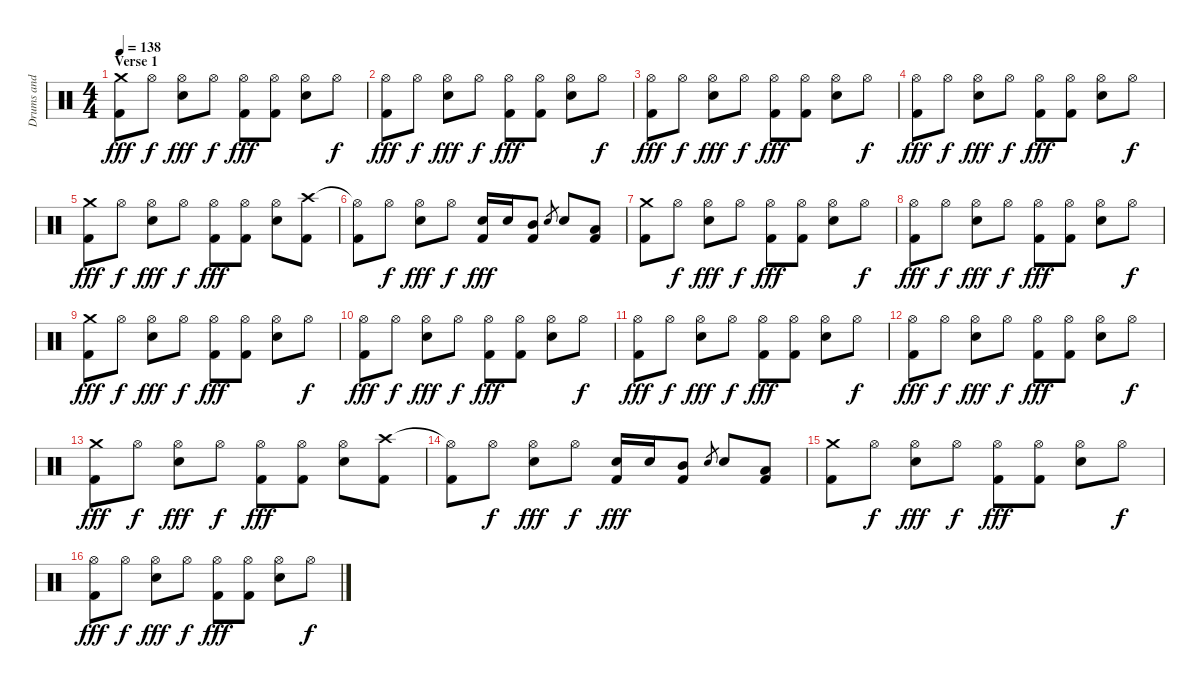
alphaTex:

\track ("Drums and Percussion" "Drums and ") {instrument percussion}
\staff {score}
\articulation defaults
\ts (4 4)
\section ("" "Verse 1")
\tempo 138
\clef neutral
\ks c
("Crash medium (hit)" "Kick (hit) 2").8{dy fff} "Hi-Hat (open)".8{dy f} ("Hi-Hat (open)" "Snare (hit) 2").8{dy fff} "Hi-Hat (open)".8{dy f} ("Hi-Hat (open)" "Kick (hit) 2").8{dy fff} ("Hi-Hat (open)" "Kick (hit) 2").8 ("Hi-Hat (open)" "Snare (hit) 2").8 "Hi-Hat (open)".8{dy f} |
("Hi-Hat (open)" "Kick (hit) 2").8{dy fff} "Hi-Hat (open)".8{dy f} ("Hi-Hat (open)" "Snare (hit) 2").8{dy fff} "Hi-Hat (open)".8{dy f} ("Hi-Hat (open)" "Kick (hit) 2").8{dy fff} ("Hi-Hat (open)" "Kick (hit) 2").8 ("Hi-Hat (open)" "Snare (hit) 2").8 "Hi-Hat (open)".8{dy f} |
("Hi-Hat (open)" "Kick (hit) 2").8{dy fff} "Hi-Hat (open)".8{dy f} ("Hi-Hat (open)" "Snare (hit) 2").8{dy fff} "Hi-Hat (open)".8{dy f} ("Hi-Hat (open)" "Kick (hit) 2").8{dy fff} ("Hi-Hat (open)" "Kick (hit) 2").8 ("Hi-Hat (open)" "Snare (hit) 2").8 "Hi-Hat (open)".8{dy f} |
("Hi-Hat (open)" "Kick (hit) 2").8{dy fff} "Hi-Hat (open)".8{dy f} ("Hi-Hat (open)" "Snare (hit) 2").8{dy fff} "Hi-Hat (open)".8{dy f} ("Hi-Hat (open)" "Kick (hit) 2").8{dy fff} ("Hi-Hat (open)" "Kick (hit) 2").8 ("Hi-Hat (open)" "Snare (hit) 2").8 "Hi-Hat (open)".8{dy f} |
("Crash medium (hit)" "Kick (hit) 2").8{dy fff} "Hi-Hat (open)".8{dy f} ("Hi-Hat (open)" "Snare (hit) 2").8{dy fff} "Hi-Hat (open)".8{dy f} ("Hi-Hat (open)" "Kick (hit) 2").8{dy fff} ("Hi-Hat (open)" "Kick (hit) 2").8 ("Hi-Hat (open)" "Snare (hit) 2").8 ("Crash high (hit)" "Kick (hit) 2").8 |
("Hi-Hat (open)"{t} "Kick (hit) 2").8 "Hi-Hat (open)".8{dy f} ("Hi-Hat (open)" "Snare (hit) 2").8{dy fff} "Hi-Hat (open)".8{dy f} ("Snare (hit) 2" "Kick (hit) 2").16{dy fff} "Snare (hit) 2".16 ("Mid Tom (hit)" "Kick (hit) 2").8 "Snare (hit) 2".8{gr} "Snare (hit) 2".8 ("Low Tom (hit)" "Kick (hit) 2").8 |
("Crash medium (hit)" "Kick (hit) 2").8 "Hi-Hat (open)".8{dy f} ("Hi-Hat (open)" "Snare (hit) 2").8{dy fff} "Hi-Hat (open)".8{dy f} ("Hi-Hat (open)" "Kick (hit) 2").8{dy fff} ("Hi-Hat (open)" "Kick (hit) 2").8 ("Hi-Hat (open)" "Snare (hit) 2").8 "Hi-Hat (open)".8{dy f} |
("Hi-Hat (open)" "Kick (hit) 2").8{dy fff} "Hi-Hat (open)".8{dy f} ("Hi-Hat (open)" "Snare (hit) 2").8{dy fff} "Hi-Hat (open)".8{dy f} ("Hi-Hat (open)" "Kick (hit) 2").8{dy fff} ("Hi-Hat (open)" "Kick (hit) 2").8 ("Hi-Hat (open)" "Snare (hit) 2").8 "Hi-Hat (open)".8{dy f} |
("Crash medium (hit)" "Kick (hit) 2").8{dy fff} "Hi-Hat (open)".8{dy f} ("Hi-Hat (open)" "Snare (hit) 2").8{dy fff} "Hi-Hat (open)".8{dy f} ("Hi-Hat (open)" "Kick (hit) 2").8{dy fff} ("Hi-Hat (open)" "Kick (hit) 2").8 ("Hi-Hat (open)" "Snare (hit) 2").8 "Hi-Hat (open)".8{dy f} |
("Hi-Hat (open)" "Kick (hit) 2").8{dy fff} "Hi-Hat (open)".8{dy f} ("Hi-Hat (open)" "Snare (hit) 2").8{dy fff} "Hi-Hat (open)".8{dy f} ("Hi-Hat (open)" "Kick (hit) 2").8{dy fff} ("Hi-Hat (open)" "Kick (hit) 2").8 ("Hi-Hat (open)" "Snare (hit) 2").8 "Hi-Hat (open)".8{dy f} |
("Hi-Hat (open)" "Kick (hit) 2").8{dy fff} "Hi-Hat (open)".8{dy f} ("Hi-Hat (open)" "Snare (hit) 2").8{dy fff} "Hi-Hat (open)".8{dy f} ("Hi-Hat (open)" "Kick (hit) 2").8{dy fff} ("Hi-Hat (open)" "Kick (hit) 2").8 ("Hi-Hat (open)" "Snare (hit) 2").8 "Hi-Hat (open)".8{dy f} |
("Hi-Hat (open)" "Kick (hit) 2").8{dy fff} "Hi-Hat (open)".8{dy f} ("Hi-Hat (open)" "Snare (hit) 2").8{dy fff} "Hi-Hat (open)".8{dy f} ("Hi-Hat (open)" "Kick (hit) 2").8{dy fff} ("Hi-Hat (open)" "Kick (hit) 2").8 ("Hi-Hat (open)" "Snare (hit) 2").8 "Hi-Hat (open)".8{dy f} |
("Crash medium (hit)" "Kick (hit) 2").8{dy fff} "Hi-Hat (open)".8{dy f} ("Hi-Hat (open)" "Snare (hit) 2").8{dy fff} "Hi-Hat (open)".8{dy f} ("Hi-Hat (open)" "Kick (hit) 2").8{dy fff} ("Hi-Hat (open)" "Kick (hit) 2").8 ("Hi-Hat (open)" "Snare (hit) 2").8 ("Crash high (hit)" "Kick (hit) 2").8 |
("Hi-Hat (open)"{t} "Kick (hit) 2").8 "Hi-Hat (open)".8{dy f} ("Hi-Hat (open)" "Snare (hit) 2").8{dy fff} "Hi-Hat (open)".8{dy f} ("Snare (hit) 2" "Kick (hit) 2").16{dy fff} "Snare (hit) 2".16 ("Mid Tom (hit)" "Kick (hit) 2").8 "Snare (hit) 2".8{gr} "Snare (hit) 2".8 ("Low Tom (hit)" "Kick (hit) 2").8 |
("Crash medium (hit)" "Kick (hit) 2").8 "Hi-Hat (open)".8{dy f} ("Hi-Hat (open)" "Snare (hit) 2").8{dy fff} "Hi-Hat (open)".8{dy f} ("Hi-Hat (open)" "Kick (hit) 2").8{dy fff} ("Hi-Hat (open)" "Kick (hit) 2").8 ("Hi-Hat (open)" "Snare (hit) 2").8 "Hi-Hat (open)".8{dy f} |
("Hi-Hat (open)" "Kick (hit) 2").8{dy fff} "Hi-Hat (open)".8{dy f} ("Hi-Hat (open)" "Snare (hit) 2").8{dy fff} "Hi-Hat (open)".8{dy f} ("Hi-Hat (open)" "Kick (hit) 2").8{dy fff} ("Hi-Hat (open)" "Kick (hit) 2").8 ("Hi-Hat (open)" "Snare (hit) 2").8 "Hi-Hat (open)".8{dy f}
